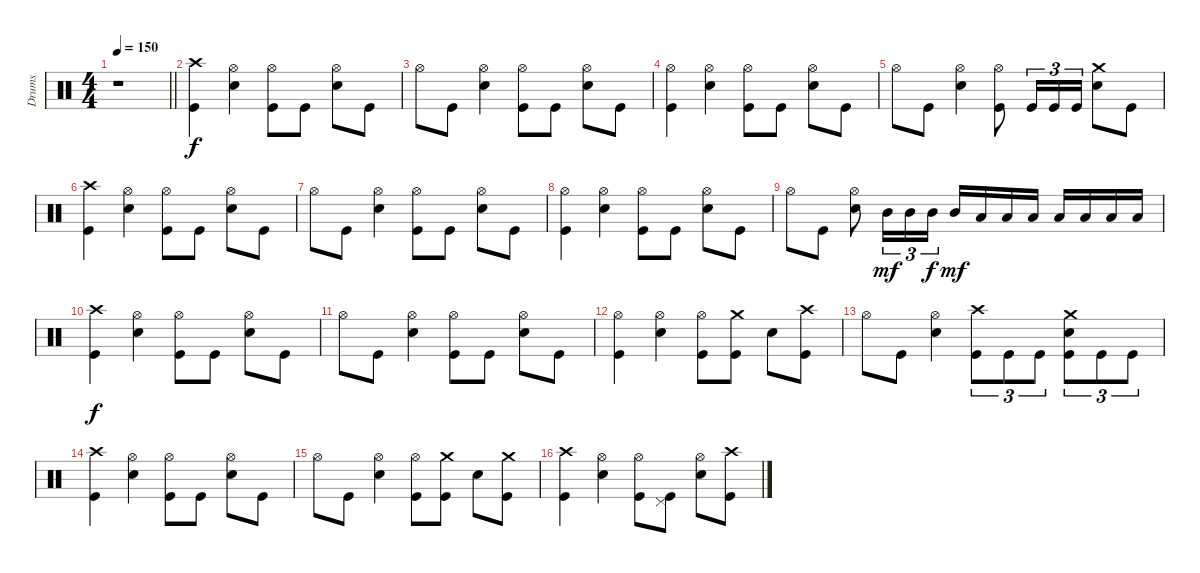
\track ("Drums" "Drums") {instrument percussion}
\staff {score}
\articulation defaults
\ts (4 4)
\tempo 150
\clef neutral
\barLineRight lightlight
\ks c
r.1{dy f} |
("Crash high (hit)" "Kick (hit)").4 ("Hi-Hat (open)" "Electric Snare (hit)").4 ("Hi-Hat (open)" "Kick (hit)").8 "Kick (hit)".8 ("Hi-Hat (open)" "Electric Snare (hit)").8 "Kick (hit)".8 |
"Hi-Hat (open)".8 "Kick (hit)".8 ("Hi-Hat (open)" "Electric Snare (hit)").4 ("Hi-Hat (open)" "Kick (hit)").8 "Kick (hit)".8 ("Hi-Hat (open)" "Electric Snare (hit)").8 "Kick (hit)".8 |
("Hi-Hat (open)" "Kick (hit)").4 ("Hi-Hat (open)" "Electric Snare (hit)").4 ("Hi-Hat (open)" "Kick (hit)").8 "Kick (hit)".8 ("Hi-Hat (open)" "Electric Snare (hit)").8 "Kick (hit)".8 |
"Hi-Hat (open)".8 "Kick (hit)".8 ("Hi-Hat (open)" "Electric Snare (hit)").4 ("Hi-Hat (open)" "Kick (hit)").8 "Kick (hit)".16{tu (3 2)} "Kick (hit)".16{tu (3 2)} "Kick (hit)".16{tu (3 2)} ("Crash medium (hit)" "Electric Snare (hit)").8 "Kick (hit)".8 |
("Crash high (hit)" "Kick (hit)").4 ("Hi-Hat (open)" "Electric Snare (hit)").4 ("Hi-Hat (open)" "Kick (hit)").8 "Kick (hit)".8 ("Hi-Hat (open)" "Electric Snare (hit)").8 "Kick (hit)".8 |
"Hi-Hat (open)".8 "Kick (hit)".8 ("Hi-Hat (open)" "Electric Snare (hit)").4 ("Hi-Hat (open)" "Kick (hit)").8 "Kick (hit)".8 ("Hi-Hat (open)" "Electric Snare (hit)").8 "Kick (hit)".8 |
("Hi-Hat (open)" "Kick (hit)").4 ("Hi-Hat (open)" "Electric Snare (hit)").4 ("Hi-Hat (open)" "Kick (hit)").8 "Kick (hit)".8 ("Hi-Hat (open)" "Electric Snare (hit)").8 "Kick (hit)".8 |
"Hi-Hat (open)".8 "Kick (hit)".8 ("Hi-Hat (open)" "Electric Snare (hit)").8 "Mid Tom (hit)".16{tu (3 2) dy mf} "Mid Tom (hit)".16{tu (3 2)} "Mid Tom (hit)".16{tu (3 2) dy f} "Mid Tom (hit)".16{dy mf} "Low Tom (hit)".16 "Low Tom (hit)".16 "Low Tom (hit)".16 "Low Tom (hit)".16 "Low Floor Tom (hit)".16 "Low Floor Tom (hit)".16 "Low Floor Tom (hit)".16 |
("Crash high (hit)" "Kick (hit)").4{dy f} ("Hi-Hat (open)" "Electric Snare (hit)").4 ("Hi-Hat (open)" "Kick (hit)").8 "Kick (hit)".8 ("Hi-Hat (open)" "Electric Snare (hit)").8 "Kick (hit)".8 |
"Hi-Hat (open)".8 "Kick (hit)".8 ("Hi-Hat (open)" "Electric Snare (hit)").4 ("Hi-Hat (open)" "Kick (hit)").8 "Kick (hit)".8 ("Hi-Hat (open)" "Electric Snare (hit)").8 "Kick (hit)".8 |
("Hi-Hat (open)" "Kick (hit)").4 ("Hi-Hat (open)" "Electric Snare (hit)").4 ("Hi-Hat (open)" "Kick (hit)").8 ("Crash medium (hit)" "Kick (hit)").8 "Electric Snare (hit)".8 ("Crash high (hit)" "Kick (hit)").8 |
"Hi-Hat (open)".8 "Kick (hit)".8 ("Hi-Hat (open)" "Electric Snare (hit)").4 ("Crash high (hit)" "Kick (hit)").8{tu (3 2)} "Kick (hit)".8{tu (3 2)} "Kick (hit)".8{tu (3 2)} ("Crash medium (hit)" "Electric Snare (hit)" "Kick (hit)").8{tu (3 2)} "Kick (hit)".8{tu (3 2)} "Kick (hit)".8{tu (3 2)} |
("Crash high (hit)" "Kick (hit)").4 ("Hi-Hat (open)" "Electric Snare (hit)").4 ("Hi-Hat (open)" "Kick (hit)").8 "Kick (hit)".8 ("Hi-Hat (open)" "Electric Snare (hit)").8 "Kick (hit)".8 |
"Hi-Hat (open)".8 "Kick (hit)".8 ("Hi-Hat (open)" "Electric Snare (hit)").4 ("Hi-Hat (open)" "Kick (hit)").8 ("Crash medium (hit)" "Kick (hit)").8 "Electric Snare (hit)".8 ("Crash medium (hit)" "Kick (hit)").8 |
("Crash high (hit)" "Kick (hit)").4 ("Hi-Hat (open)" "Electric Snare (hit)").4 ("Hi-Hat (open)" "Kick (hit)").8 ("Pedal Hi-Hat (hit)" "Kick (hit)").8 ("Hi-Hat (open)" "Electric Snare (hit)").8 ("Crash high (hit)" "Kick (hit)").8
